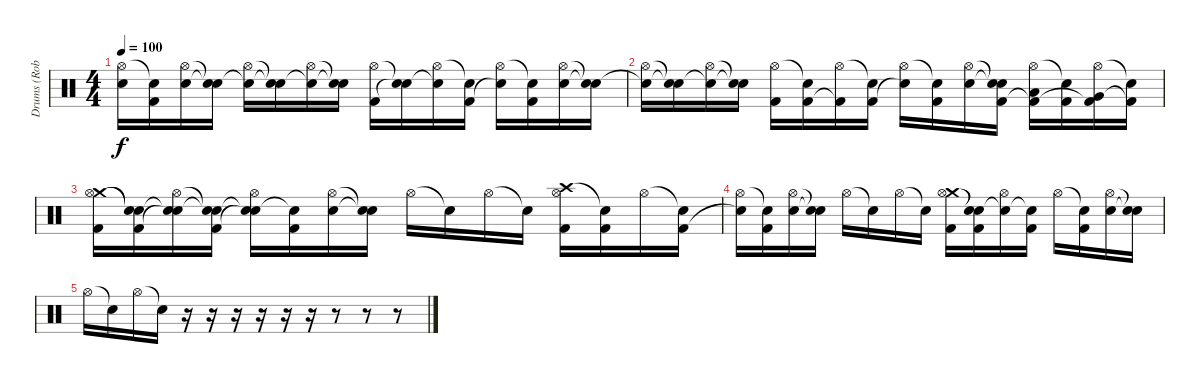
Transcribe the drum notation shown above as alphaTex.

\track ("Drums (Rob Bourdon)" "Drums (Rob") {instrument percussion}
\staff {score}
\articulation defaults
\ts (4 4)
\tempo 100
\clef neutral
\ks c
("Hi-Hat (open)" "Snare (hit)"{t}).16{dy f} ("Snare (hit)"{t} "Kick (hit) 2").16 ("Hi-Hat (open)" "Electric Snare (hit)").16 ("Snare (hit)"{t} "Snare (hit)"{t}).16 ("Hi-Hat (open)" "Snare (hit)"{t}).16 ("Snare (hit)"{t} "Snare (hit)"{t}).16 ("Hi-Hat (open)" "Snare (hit)"{t}).16 ("Snare (hit)"{t} "Snare (hit)"{t}).16 ("Hi-Hat (open)" "Kick (hit) 2").16 ("Snare (hit)"{t} "Snare (hit)"{t}).16 ("Hi-Hat (open)" "Snare (hit)"{t}).16 ("Snare (hit)"{t} "Kick (hit) 2").16 ("Hi-Hat (open)" "Snare (hit)"{t}).16 ("Snare (hit)"{t} "Kick (hit) 2").16 ("Hi-Hat (open)" "Electric Snare (hit)").16 ("Snare (hit)"{t} "Snare (hit)"{t}).16 |
("Hi-Hat (open)" "Snare (hit)"{t}).16 ("Snare (hit)"{t} "Snare (hit)"{t}).16 ("Hi-Hat (open)" "Snare (hit)"{t}).16 ("Snare (hit)"{t} "Snare (hit)"{t}).16 ("Hi-Hat (open)" "Kick (hit) 2").16 ("Snare (hit)"{t} "Kick (hit) 2").16 ("Hi-Hat (open)" "Kick (hit) 2"{t}).16 ("Snare (hit)"{t} "Kick (hit) 2").16 ("Hi-Hat (open)" "Snare (hit)"{t}).16 ("Snare (hit)"{t} "Kick (hit) 2").16 ("Hi-Hat (open)" "Electric Snare (hit)").16 ("Snare (hit)"{t} "Snare (hit)"{t} "Kick (hit) 2").16 ("Hi-Hat (open)" "Low Tom (hit)" "Kick (hit) 2"{t}).16 ("Snare (hit)"{t} "Kick (hit) 2").16 ("Hi-Hat (open)" "Very Low Tom (hit)" "Kick (hit) 2"{t}).16 ("Snare (hit)"{t} "Kick (hit) 2"{t}).16 |
("Crash medium (hit)" "Hi-Hat (open)" "Kick (hit) 2").16 ("Snare (hit)"{t} "Snare (hit)"{t} "Kick (hit) 2").16 ("Snare (hit)"{t} "Hi-Hat (open)" "Snare (hit)"{t}).16 ("Snare (hit)"{t} "Snare (hit)"{t} "Kick (hit) 2").16 ("Snare (hit)"{t} "Hi-Hat (open)" "Snare (hit)"{t}).16 ("Snare (hit)"{t} "Kick (hit) 2").16 ("Hi-Hat (open)" "Electric Snare (hit)").16 ("Snare (hit)"{t} "Snare (hit)"{t}).16 "Hi-Hat (open)".16 "Snare (hit)"{t}.16 "Hi-Hat (open)".16 "Snare (hit)"{t}.16 ("Crash high (hit)" "Hi-Hat (open)" "Kick (hit) 2").16 ("Snare (hit)"{t} "Kick (hit) 2").16 "Hi-Hat (open)".16 ("Snare (hit)"{t} "Kick (hit) 2").16 |
("Hi-Hat (open)" "Snare (hit)"{t}).16 ("Snare (hit)"{t} "Kick (hit) 2").16 ("Hi-Hat (open)" "Electric Snare (hit)").16 ("Snare (hit)"{t} "Snare (hit)"{t}).16 "Hi-Hat (open)".16 "Snare (hit)"{t}.16 "Hi-Hat (open)".16 "Snare (hit)"{t}.16 ("Crash medium (hit)" "Hi-Hat (open)" "Kick (hit) 2").16 ("Snare (hit)"{t} "Snare (hit)"{t} "Kick (hit) 2").16 ("Snare (hit)"{t} "Hi-Hat (open)").16 ("Snare (hit)"{t} "Kick (hit) 2").16 "Hi-Hat (open)".16 ("Snare (hit)"{t} "Kick (hit) 2").16 ("Hi-Hat (open)" "Electric Snare (hit)").16 ("Snare (hit)"{t} "Snare (hit)"{t}).16 |
"Hi-Hat (open)".16 "Snare (hit)"{t}.16 "Hi-Hat (open)".16 "Snare (hit)"{t}.16 r.16 r.16 r.16 r.16 r.16 r.16 r.8 r.8 r.8
